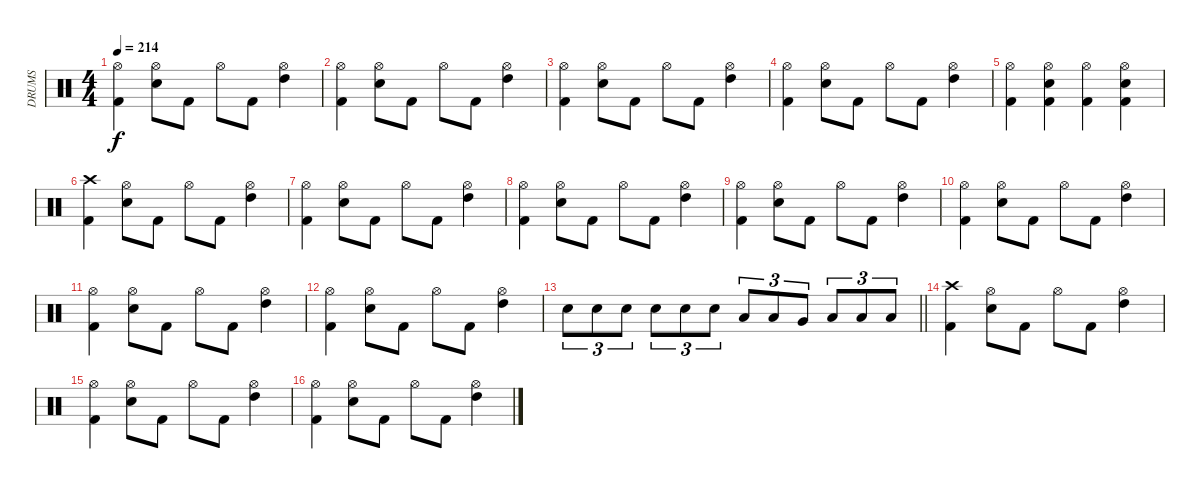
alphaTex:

\track ("DRUMS" "DRUMS") {instrument percussion}
\staff {score}
\articulation defaults
\ts (4 4)
\tempo 214
\clef neutral
\ks c
("Hi-Hat (open)" "Kick (hit) 2").4{dy f} ("Hi-Hat (open)" "Snare (hit) 2").8 "Kick (hit) 2".8 "Hi-Hat (open)".8 "Kick (hit) 2".8 ("Hi-Hat (open)" "High Tom (hit)").4 |
("Hi-Hat (open)" "Kick (hit) 2").4 ("Hi-Hat (open)" "Snare (hit) 2").8 "Kick (hit) 2".8 "Hi-Hat (open)".8 "Kick (hit) 2".8 ("Hi-Hat (open)" "High Tom (hit)").4 |
("Hi-Hat (open)" "Kick (hit) 2").4 ("Hi-Hat (open)" "Snare (hit) 2").8 "Kick (hit) 2".8 "Hi-Hat (open)".8 "Kick (hit) 2".8 ("Hi-Hat (open)" "High Tom (hit)").4 |
("Hi-Hat (open)" "Kick (hit) 2").4 ("Hi-Hat (open)" "Snare (hit) 2").8 "Kick (hit) 2".8 "Hi-Hat (open)".8 "Kick (hit) 2".8 ("Hi-Hat (open)" "High Tom (hit)").4 |
("Hi-Hat (open)" "Kick (hit) 2").4 ("Hi-Hat (open)" "Snare (hit) 2" "Kick (hit) 2").4 ("Hi-Hat (open)" "Kick (hit) 2").4 ("Hi-Hat (open)" "Snare (hit) 2" "Kick (hit) 2").4 |
("Crash high (hit)" "Kick (hit) 2").4 ("Hi-Hat (open)" "Snare (hit) 2").8 "Kick (hit) 2".8 "Hi-Hat (open)".8 "Kick (hit) 2".8 ("Hi-Hat (open)" "High Tom (hit)").4 |
("Hi-Hat (open)" "Kick (hit) 2").4 ("Hi-Hat (open)" "Snare (hit) 2").8 "Kick (hit) 2".8 "Hi-Hat (open)".8 "Kick (hit) 2".8 ("Hi-Hat (open)" "High Tom (hit)").4 |
("Hi-Hat (open)" "Kick (hit) 2").4 ("Hi-Hat (open)" "Snare (hit) 2").8 "Kick (hit) 2".8 "Hi-Hat (open)".8 "Kick (hit) 2".8 ("Hi-Hat (open)" "High Tom (hit)").4 |
("Hi-Hat (open)" "Kick (hit) 2").4 ("Hi-Hat (open)" "Snare (hit) 2").8 "Kick (hit) 2".8 "Hi-Hat (open)".8 "Kick (hit) 2".8 ("Hi-Hat (open)" "High Tom (hit)").4 |
("Hi-Hat (open)" "Kick (hit) 2").4 ("Hi-Hat (open)" "Snare (hit) 2").8 "Kick (hit) 2".8 "Hi-Hat (open)".8 "Kick (hit) 2".8 ("Hi-Hat (open)" "High Tom (hit)").4 |
("Hi-Hat (open)" "Kick (hit) 2").4 ("Hi-Hat (open)" "Snare (hit) 2").8 "Kick (hit) 2".8 "Hi-Hat (open)".8 "Kick (hit) 2".8 ("Hi-Hat (open)" "High Tom (hit)").4 |
("Hi-Hat (open)" "Kick (hit) 2").4 ("Hi-Hat (open)" "Snare (hit) 2").8 "Kick (hit) 2".8 "Hi-Hat (open)".8 "Kick (hit) 2".8 ("Hi-Hat (open)" "High Tom (hit)").4 |
\barLineRight lightlight "Snare (hit) 2".8{tu (3 2)} "Snare (hit) 2".8{tu (3 2)} "Snare (hit) 2".8{tu (3 2)} "Snare (hit) 2".8{tu (3 2)} "Snare (hit) 2".8{tu (3 2)} "Snare (hit) 2".8{tu (3 2)} "Low Tom (hit)".8{tu (3 2)} "Low Tom (hit)".8{tu (3 2)} "Very Low Tom (hit)".8{tu (3 2)} "Low Floor Tom (hit)".8{tu (3 2)} "Low Floor Tom (hit)".8{tu (3 2)} "Low Floor Tom (hit)".8{tu (3 2)}
|
("Crash high (hit)" "Kick (hit) 2").4 ("Hi-Hat (open)" "Snare (hit) 2").8 "Kick (hit) 2".8 "Hi-Hat (open)".8 "Kick (hit) 2".8 ("Hi-Hat (open)" "High Tom (hit)").4 |
("Hi-Hat (open)" "Kick (hit) 2").4 ("Hi-Hat (open)" "Snare (hit) 2").8 "Kick (hit) 2".8 "Hi-Hat (open)".8 "Kick (hit) 2".8 ("Hi-Hat (open)" "High Tom (hit)").4 |
("Hi-Hat (open)" "Kick (hit) 2").4 ("Hi-Hat (open)" "Snare (hit) 2").8 "Kick (hit) 2".8 "Hi-Hat (open)".8 "Kick (hit) 2".8 ("Hi-Hat (open)" "High Tom (hit)").4
